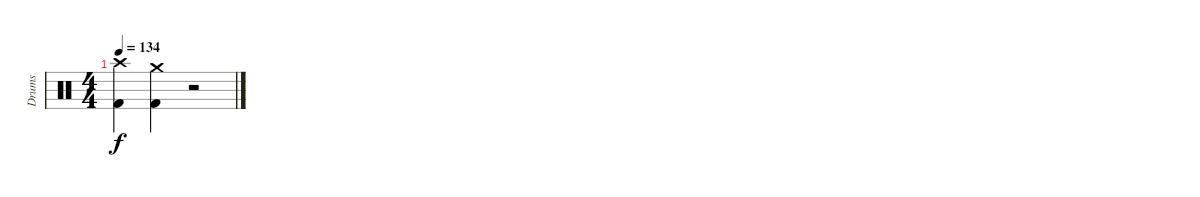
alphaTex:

\track ("Drums" "Drums") {instrument percussion}
\staff {score}
\articulation defaults
\ts (4 4)
\tempo 134
\clef neutral
\ks c
("Crash high (hit)" "Kick (hit) 2").4{dy f} ("Crash medium (hit)" "Kick (hit) 2").4 r.2
